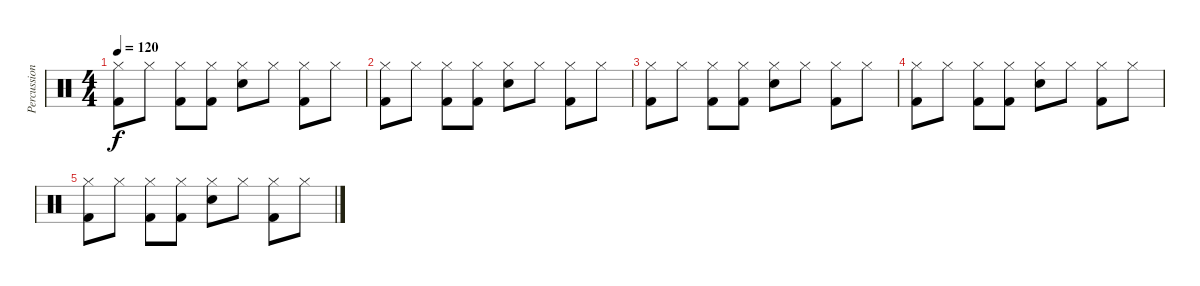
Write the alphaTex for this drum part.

\track ("Percussions" "Percussion") {instrument percussion}
\staff {score}
\articulation defaults
\ts (4 4)
\tempo 120
\clef neutral
\ks c
("Hi-Hat (closed)" "Kick (hit) 2").8{dy f} "Hi-Hat (closed)".8 ("Hi-Hat (closed)" "Kick (hit) 2").8 ("Hi-Hat (closed)" "Kick (hit) 2").8 ("Hi-Hat (closed)" "Snare (hit) 2").8 "Hi-Hat (closed)".8 ("Hi-Hat (closed)" "Kick (hit) 2").8 "Hi-Hat (closed)".8 |
("Hi-Hat (closed)" "Kick (hit) 2").8 "Hi-Hat (closed)".8 ("Hi-Hat (closed)" "Kick (hit) 2").8 ("Hi-Hat (closed)" "Kick (hit) 2").8 ("Hi-Hat (closed)" "Snare (hit) 2").8 "Hi-Hat (closed)".8 ("Hi-Hat (closed)" "Kick (hit) 2").8 "Hi-Hat (closed)".8 |
("Hi-Hat (closed)" "Kick (hit) 2").8 "Hi-Hat (closed)".8 ("Hi-Hat (closed)" "Kick (hit) 2").8 ("Hi-Hat (closed)" "Kick (hit) 2").8 ("Hi-Hat (closed)" "Snare (hit) 2").8 "Hi-Hat (closed)".8 ("Hi-Hat (closed)" "Kick (hit) 2").8 "Hi-Hat (closed)".8 |
("Hi-Hat (closed)" "Kick (hit) 2").8 "Hi-Hat (closed)".8 ("Hi-Hat (closed)" "Kick (hit) 2").8 ("Hi-Hat (closed)" "Kick (hit) 2").8 ("Hi-Hat (closed)" "Snare (hit) 2").8 "Hi-Hat (closed)".8 ("Hi-Hat (closed)" "Kick (hit) 2").8 "Hi-Hat (closed)".8 |
("Hi-Hat (closed)" "Kick (hit) 2").8 "Hi-Hat (closed)".8 ("Hi-Hat (closed)" "Kick (hit) 2").8 ("Hi-Hat (closed)" "Kick (hit) 2").8 ("Hi-Hat (closed)" "Snare (hit) 2").8 "Hi-Hat (closed)".8 ("Hi-Hat (closed)" "Kick (hit) 2").8 "Hi-Hat (closed)".8
